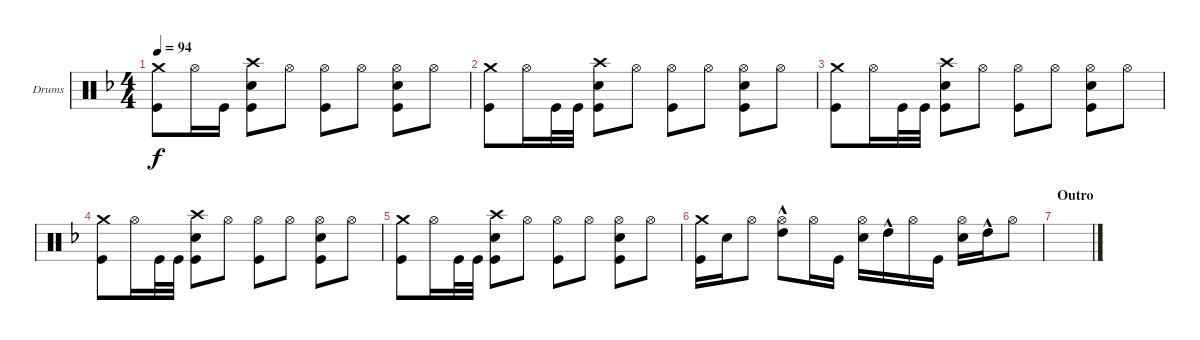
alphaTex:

\defaultSystemsLayout 4
\bracketExtendMode groupsimilarinstruments
\firstSystemTrackNameOrientation horizontal
\otherSystemsTrackNameOrientation horizontal
\track ("Drumkit" "Drums") {instrument percussion}
\staff {score}
\articulation defaults
\ts (4 4)
\tempo 94
\clef neutral
\ks dminor
("Kick (hit)" "Crash medium (hit)").8{dy f} "Hi-Hat (open)".16 "Kick (hit)".16 ("Crash high (hit)" "Snare (hit) 2" "Kick (hit)").8 "Hi-Hat (open)".8 ("Hi-Hat (open)" "Kick (hit)").8 "Hi-Hat (open)".8 ("Hi-Hat (open)" "Kick (hit)" "Snare (hit) 2").8 "Hi-Hat (open)".8 |
("Kick (hit)" "Crash medium (hit)").8 "Hi-Hat (open)".16 "Kick (hit)".32 "Kick (hit)".32 ("Crash high (hit)" "Snare (hit) 2" "Kick (hit)").8 "Hi-Hat (open)".8 ("Hi-Hat (open)" "Kick (hit)").8 "Hi-Hat (open)".8 ("Hi-Hat (open)" "Kick (hit)" "Snare (hit) 2").8 "Hi-Hat (open)".8 |
("Kick (hit)" "Crash medium (hit)").8 "Hi-Hat (open)".16 "Kick (hit)".32 "Kick (hit)".32 ("Crash high (hit)" "Snare (hit) 2" "Kick (hit)").8 "Hi-Hat (open)".8 ("Hi-Hat (open)" "Kick (hit)").8 "Hi-Hat (open)".8 ("Hi-Hat (open)" "Kick (hit)" "Snare (hit) 2").8 "Hi-Hat (open)".8 |
("Kick (hit)" "Crash medium (hit)").8 "Hi-Hat (open)".16 "Kick (hit)".32 "Kick (hit)".32 ("Crash high (hit)" "Snare (hit) 2" "Kick (hit)").8 "Hi-Hat (open)".8 ("Hi-Hat (open)" "Kick (hit)").8 "Hi-Hat (open)".8 ("Hi-Hat (open)" "Kick (hit)" "Snare (hit) 2").8 "Hi-Hat (open)".8 |
("Kick (hit)" "Crash medium (hit)").8 "Hi-Hat (open)".16 "Kick (hit)".32 "Kick (hit)".32 ("Crash high (hit)" "Snare (hit) 2" "Kick (hit)").8 "Hi-Hat (open)".8 ("Hi-Hat (open)" "Kick (hit)").8 "Hi-Hat (open)".8 ("Hi-Hat (open)" "Kick (hit)" "Snare (hit) 2").8 "Hi-Hat (open)".8 |
("Kick (hit)" "Crash medium (hit)").16 "Snare (hit) 2".16 "Hi-Hat (open)".8 ("High Tom (hit)"{hac} "Hi-Hat (open)").8 "Hi-Hat (open)".16 "Kick (hit)".16 ("Hi-Hat (open)" "Snare (hit) 2").16 "High Tom (hit)"{hac}.16 "Hi-Hat (open)".16 "Kick (hit)".16 ("Hi-Hat (open)" "Snare (hit) 2").16 "High Tom (hit)"{hac}.16 "Hi-Hat (open)".8 |
\section ("" "Outro")
